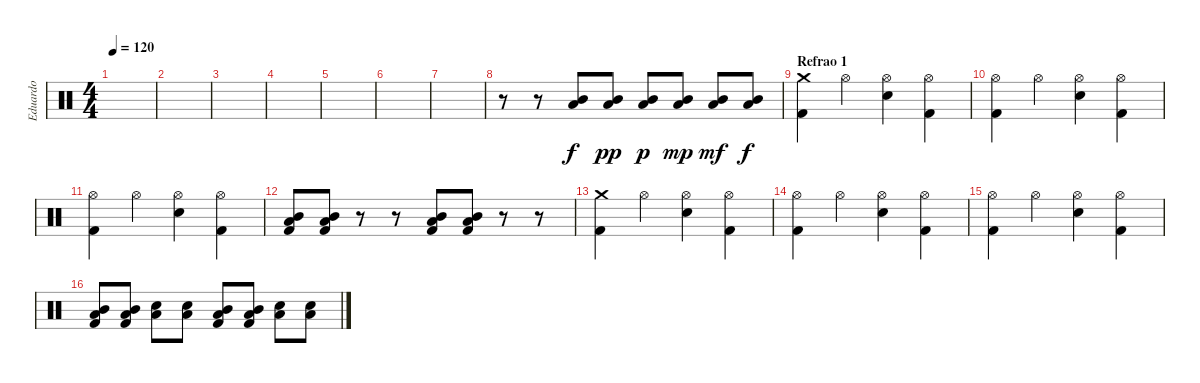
\track ("Eduardo" "Eduardo") {instrument percussion}
\staff {score}
\articulation defaults
\ts (4 4)
\tempo 120
\clef neutral
\ks c
|
|
|
|
|
|
|
r.8 r.8 ("Mid Tom (hit)" "Low Tom (hit)").8 ("Mid Tom (hit)" "Low Tom (hit)").8{dy pp} ("Mid Tom (hit)" "Low Tom (hit)").8{dy p} ("Mid Tom (hit)" "Low Tom (hit)").8{dy mp} ("Mid Tom (hit)" "Low Tom (hit)").8{dy mf} ("Mid Tom (hit)" "Low Tom (hit)").8{dy f} |
\section ("" "Refrao 1")
("Crash medium (hit)" "Kick (hit) 2").4 "Hi-Hat (open)".4 ("Hi-Hat (open)" "Snare (hit) 2").4 ("Hi-Hat (open)" "Kick (hit) 2").4 |
("Hi-Hat (open)" "Kick (hit) 2").4 "Hi-Hat (open)".4 ("Hi-Hat (open)" "Snare (hit) 2").4 ("Hi-Hat (open)" "Kick (hit) 2").4 |
("Hi-Hat (open)" "Kick (hit) 2").4 "Hi-Hat (open)".4 ("Hi-Hat (open)" "Snare (hit) 2").4 ("Hi-Hat (open)" "Kick (hit) 2").4 |
("Mid Tom (hit)" "Low Tom (hit)" "Kick (hit) 2").8 ("Mid Tom (hit)" "Low Tom (hit)" "Kick (hit) 2").8 r.8 r.8 ("Mid Tom (hit)" "Low Tom (hit)" "Kick (hit) 2").8 ("Mid Tom (hit)" "Low Tom (hit)" "Kick (hit) 2").8 r.8 r.8 |
("Crash medium (hit)" "Kick (hit) 2").4 "Hi-Hat (open)".4 ("Hi-Hat (open)" "Snare (hit) 2").4 ("Hi-Hat (open)" "Kick (hit) 2").4 |
("Hi-Hat (open)" "Kick (hit) 2").4 "Hi-Hat (open)".4 ("Hi-Hat (open)" "Snare (hit) 2").4 ("Hi-Hat (open)" "Kick (hit) 2").4 |
("Hi-Hat (open)" "Kick (hit) 2").4 "Hi-Hat (open)".4 ("Hi-Hat (open)" "Snare (hit) 2").4 ("Hi-Hat (open)" "Kick (hit) 2").4 |
("Mid Tom (hit)" "Low Tom (hit)" "Kick (hit) 2").8 ("Mid Tom (hit)" "Low Tom (hit)" "Kick (hit) 2").8 ("Low Tom (hit)" "Snare (hit) 2").8 ("Low Tom (hit)" "Snare (hit) 2").8 ("Mid Tom (hit)" "Low Tom (hit)" "Kick (hit) 2").8 ("Mid Tom (hit)" "Low Tom (hit)" "Kick (hit) 2").8 ("Low Tom (hit)" "Snare (hit) 2").8 ("Low Tom (hit)" "Snare (hit) 2").8
